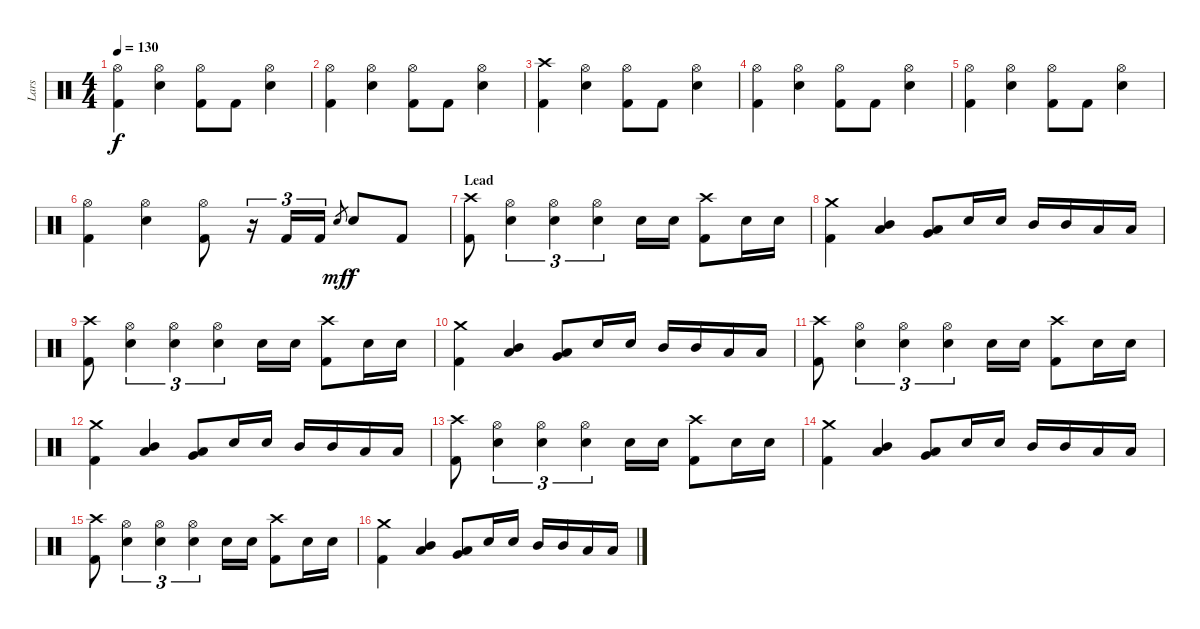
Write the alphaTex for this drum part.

\track ("Lars" "Lars") {instrument percussion}
\staff {score}
\articulation defaults
\ts (4 4)
\tempo 130
\clef neutral
\ks c
("Kick (hit) 2" "Hi-Hat (open)").4{dy f} ("Electric Snare (hit)" "Hi-Hat (open)").4 ("Kick (hit) 2" "Hi-Hat (open)").8 "Kick (hit) 2".8 ("Electric Snare (hit)" "Hi-Hat (open)").4 |
("Kick (hit) 2" "Hi-Hat (open)").4 ("Electric Snare (hit)" "Hi-Hat (open)").4 ("Kick (hit) 2" "Hi-Hat (open)").8 "Kick (hit) 2".8 ("Electric Snare (hit)" "Hi-Hat (open)").4 |
("Kick (hit) 2" "Crash high (hit)").4 ("Electric Snare (hit)" "Hi-Hat (open)").4 ("Kick (hit) 2" "Hi-Hat (open)").8 "Kick (hit) 2".8 ("Electric Snare (hit)" "Hi-Hat (open)").4 |
("Kick (hit) 2" "Hi-Hat (open)").4 ("Electric Snare (hit)" "Hi-Hat (open)").4 ("Kick (hit) 2" "Hi-Hat (open)").8 "Kick (hit) 2".8 ("Electric Snare (hit)" "Hi-Hat (open)").4 |
("Kick (hit) 2" "Hi-Hat (open)").4 ("Electric Snare (hit)" "Hi-Hat (open)").4 ("Kick (hit) 2" "Hi-Hat (open)").8 "Kick (hit) 2".8 ("Electric Snare (hit)" "Hi-Hat (open)").4 |
("Kick (hit) 2" "Hi-Hat (open)").4 ("Electric Snare (hit)" "Hi-Hat (open)").4 ("Kick (hit) 2" "Hi-Hat (open)").8 r.16{tu (3 2)} "Kick (hit) 2".16{tu (3 2)} "Kick (hit) 2".16{tu (3 2)} "Electric Snare (hit)".8{gr dy mf} "Electric Snare (hit)".8{dy f} "Kick (hit) 2".8 |
\section ("" "Lead")
("Kick (hit) 2" "Crash high (hit)").8 ("Electric Snare (hit)" "Hi-Hat (open)").4{tu (3 2)} ("Electric Snare (hit)" "Hi-Hat (open)").4{tu (3 2)} ("Electric Snare (hit)" "Hi-Hat (open)").4{tu (3 2)} "Electric Snare (hit)".16 "Electric Snare (hit)".16 ("Kick (hit) 2" "Crash high (hit)").8 "Electric Snare (hit)".16 "Electric Snare (hit)".16 |
("Kick (hit) 2" "Crash medium (hit)").4 ("Mid Tom (hit)" "Low Tom (hit)").4{bu 120} ("Low Tom (hit)" "Very Low Tom (hit)").8{bu 120} "Electric Snare (hit)".16 "Electric Snare (hit)".16 "Mid Tom (hit)".16 "Mid Tom (hit)".16 "Low Tom (hit)".16 "Low Tom (hit)".16 |
("Kick (hit) 2" "Crash high (hit)").8 ("Electric Snare (hit)" "Hi-Hat (open)").4{tu (3 2)} ("Electric Snare (hit)" "Hi-Hat (open)").4{tu (3 2)} ("Electric Snare (hit)" "Hi-Hat (open)").4{tu (3 2)} "Electric Snare (hit)".16 "Electric Snare (hit)".16 ("Kick (hit) 2" "Crash high (hit)").8 "Electric Snare (hit)".16 "Electric Snare (hit)".16 |
("Kick (hit) 2" "Crash medium (hit)").4 ("Mid Tom (hit)" "Low Tom (hit)").4{bu 120} ("Low Tom (hit)" "Very Low Tom (hit)").8{bu 120} "Electric Snare (hit)".16 "Electric Snare (hit)".16 "Mid Tom (hit)".16 "Mid Tom (hit)".16 "Low Tom (hit)".16 "Low Tom (hit)".16 |
("Kick (hit) 2" "Crash high (hit)").8 ("Electric Snare (hit)" "Hi-Hat (open)").4{tu (3 2)} ("Electric Snare (hit)" "Hi-Hat (open)").4{tu (3 2)} ("Electric Snare (hit)" "Hi-Hat (open)").4{tu (3 2)} "Electric Snare (hit)".16 "Electric Snare (hit)".16 ("Kick (hit) 2" "Crash high (hit)").8 "Electric Snare (hit)".16 "Electric Snare (hit)".16 |
("Kick (hit) 2" "Crash medium (hit)").4 ("Mid Tom (hit)" "Low Tom (hit)").4{bu 120} ("Low Tom (hit)" "Very Low Tom (hit)").8{bu 120} "Electric Snare (hit)".16 "Electric Snare (hit)".16 "Mid Tom (hit)".16 "Mid Tom (hit)".16 "Low Tom (hit)".16 "Low Tom (hit)".16 |
("Kick (hit) 2" "Crash high (hit)").8 ("Electric Snare (hit)" "Hi-Hat (open)").4{tu (3 2)} ("Electric Snare (hit)" "Hi-Hat (open)").4{tu (3 2)} ("Electric Snare (hit)" "Hi-Hat (open)").4{tu (3 2)} "Electric Snare (hit)".16 "Electric Snare (hit)".16 ("Kick (hit) 2" "Crash high (hit)").8 "Electric Snare (hit)".16 "Electric Snare (hit)".16 |
("Kick (hit) 2" "Crash medium (hit)").4 ("Mid Tom (hit)" "Low Tom (hit)").4{bu 120} ("Low Tom (hit)" "Very Low Tom (hit)").8{bu 120} "Electric Snare (hit)".16 "Electric Snare (hit)".16 "Mid Tom (hit)".16 "Mid Tom (hit)".16 "Low Tom (hit)".16 "Low Tom (hit)".16 |
("Kick (hit) 2" "Crash high (hit)").8 ("Electric Snare (hit)" "Hi-Hat (open)").4{tu (3 2)} ("Electric Snare (hit)" "Hi-Hat (open)").4{tu (3 2)} ("Electric Snare (hit)" "Hi-Hat (open)").4{tu (3 2)} "Electric Snare (hit)".16 "Electric Snare (hit)".16 ("Kick (hit) 2" "Crash high (hit)").8 "Electric Snare (hit)".16 "Electric Snare (hit)".16 |
("Kick (hit) 2" "Crash medium (hit)").4 ("Mid Tom (hit)" "Low Tom (hit)").4{bu 120} ("Low Tom (hit)" "Very Low Tom (hit)").8{bu 120} "Electric Snare (hit)".16 "Electric Snare (hit)".16 "Mid Tom (hit)".16 "Mid Tom (hit)".16 "Low Tom (hit)".16 "Low Tom (hit)".16
